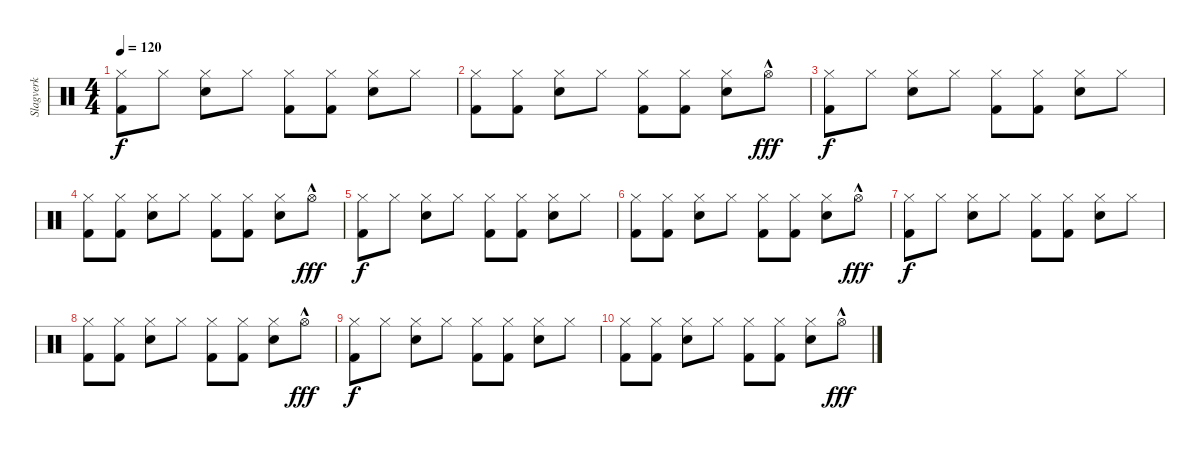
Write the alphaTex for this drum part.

\track ("Slagverk" "Slagverk") {instrument percussion}
\staff {score}
\articulation defaults
\ts (4 4)
\tempo 120
\clef neutral
\ks c
("Hi-Hat (closed)" "Kick (hit) 2").8{dy f} "Hi-Hat (closed)".8 ("Hi-Hat (closed)" "Snare (hit) 2").8 "Hi-Hat (closed)".8 ("Hi-Hat (closed)" "Kick (hit) 2").8 ("Hi-Hat (closed)" "Kick (hit) 2").8 ("Hi-Hat (closed)" "Snare (hit) 2").8 "Hi-Hat (closed)".8 |
("Hi-Hat (closed)" "Kick (hit) 2").8 ("Hi-Hat (closed)" "Kick (hit) 2").8 ("Hi-Hat (closed)" "Snare (hit) 2").8 "Hi-Hat (closed)".8 ("Hi-Hat (closed)" "Kick (hit) 2").8 ("Hi-Hat (closed)" "Kick (hit) 2").8 ("Hi-Hat (closed)" "Snare (hit) 2").8 "Hi-Hat (open)"{hac}.8{dy fff} |
("Hi-Hat (closed)" "Kick (hit) 2").8{dy f} "Hi-Hat (closed)".8 ("Hi-Hat (closed)" "Snare (hit) 2").8 "Hi-Hat (closed)".8 ("Hi-Hat (closed)" "Kick (hit) 2").8 ("Hi-Hat (closed)" "Kick (hit) 2").8 ("Hi-Hat (closed)" "Snare (hit) 2").8 "Hi-Hat (closed)".8 |
("Hi-Hat (closed)" "Kick (hit) 2").8 ("Hi-Hat (closed)" "Kick (hit) 2").8 ("Hi-Hat (closed)" "Snare (hit) 2").8 "Hi-Hat (closed)".8 ("Hi-Hat (closed)" "Kick (hit) 2").8 ("Hi-Hat (closed)" "Kick (hit) 2").8 ("Hi-Hat (closed)" "Snare (hit) 2").8 "Hi-Hat (open)"{hac}.8{dy fff} |
("Hi-Hat (closed)" "Kick (hit) 2").8{dy f} "Hi-Hat (closed)".8 ("Hi-Hat (closed)" "Snare (hit) 2").8 "Hi-Hat (closed)".8 ("Hi-Hat (closed)" "Kick (hit) 2").8 ("Hi-Hat (closed)" "Kick (hit) 2").8 ("Hi-Hat (closed)" "Snare (hit) 2").8 "Hi-Hat (closed)".8 |
("Hi-Hat (closed)" "Kick (hit) 2").8 ("Hi-Hat (closed)" "Kick (hit) 2").8 ("Hi-Hat (closed)" "Snare (hit) 2").8 "Hi-Hat (closed)".8 ("Hi-Hat (closed)" "Kick (hit) 2").8 ("Hi-Hat (closed)" "Kick (hit) 2").8 ("Hi-Hat (closed)" "Snare (hit) 2").8 "Hi-Hat (open)"{hac}.8{dy fff} |
("Hi-Hat (closed)" "Kick (hit) 2").8{dy f} "Hi-Hat (closed)".8 ("Hi-Hat (closed)" "Snare (hit) 2").8 "Hi-Hat (closed)".8 ("Hi-Hat (closed)" "Kick (hit) 2").8 ("Hi-Hat (closed)" "Kick (hit) 2").8 ("Hi-Hat (closed)" "Snare (hit) 2").8 "Hi-Hat (closed)".8 |
("Hi-Hat (closed)" "Kick (hit) 2").8 ("Hi-Hat (closed)" "Kick (hit) 2").8 ("Hi-Hat (closed)" "Snare (hit) 2").8 "Hi-Hat (closed)".8 ("Hi-Hat (closed)" "Kick (hit) 2").8 ("Hi-Hat (closed)" "Kick (hit) 2").8 ("Hi-Hat (closed)" "Snare (hit) 2").8 "Hi-Hat (open)"{hac}.8{dy fff} |
("Hi-Hat (closed)" "Kick (hit) 2").8{dy f} "Hi-Hat (closed)".8 ("Hi-Hat (closed)" "Snare (hit) 2").8 "Hi-Hat (closed)".8 ("Hi-Hat (closed)" "Kick (hit) 2").8 ("Hi-Hat (closed)" "Kick (hit) 2").8 ("Hi-Hat (closed)" "Snare (hit) 2").8 "Hi-Hat (closed)".8 |
("Hi-Hat (closed)" "Kick (hit) 2").8 ("Hi-Hat (closed)" "Kick (hit) 2").8 ("Hi-Hat (closed)" "Snare (hit) 2").8 "Hi-Hat (closed)".8 ("Hi-Hat (closed)" "Kick (hit) 2").8 ("Hi-Hat (closed)" "Kick (hit) 2").8 ("Hi-Hat (closed)" "Snare (hit) 2").8 "Hi-Hat (open)"{hac}.8{dy fff}
